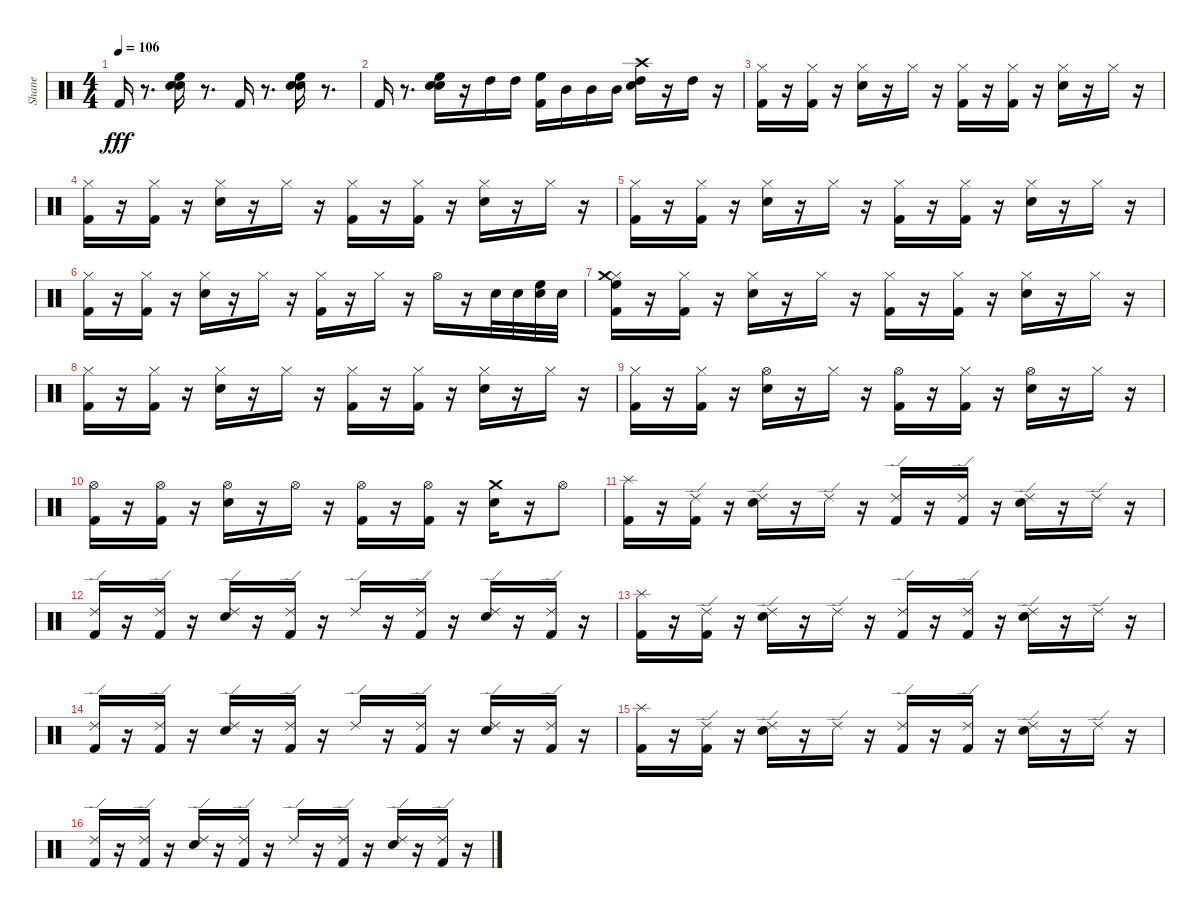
\track ("Shane" "Shane") {instrument percussion}
\staff {score}
\articulation defaults
\ts (4 4)
\tempo 106
\clef neutral
\ks c "Kick (hit) 2".16{dy fff}
r.8{d} ("Electric Snare (hit)" "Snare (hit) 2" "High Floor Tom (hit)").16 r.8{d} "Kick (hit) 2".16 r.8{d} ("Electric Snare (hit)" "Snare (hit) 2" "High Floor Tom (hit)").16 r.8{d} |
"Kick (hit) 2".16 r.8{d} ("Electric Snare (hit)" "Snare (hit) 2" "High Floor Tom (hit)").16 r.16 "High Tom (hit)".16 "High Tom (hit)".16 ("Kick (hit) 2" "High Floor Tom (hit)").16 "Mid Tom (hit)".16 "Mid Tom (hit)".16 "Mid Tom (hit)".16 ("High Tom (hit)" "Snare (hit) 2" "Crash high (hit)").16 r.16 "High Tom (hit)".16 r.16 |
("Hi-Hat (closed)" "Kick (hit) 2").16 r.16 ("Hi-Hat (closed)" "Kick (hit) 2").16 r.16 ("Hi-Hat (closed)" "Snare (hit) 2").16 r.16 "Hi-Hat (closed)".16 r.16 ("Hi-Hat (closed)" "Kick (hit) 2").16 r.16 ("Hi-Hat (closed)" "Kick (hit) 2").16 r.16 ("Hi-Hat (closed)" "Snare (hit) 2").16 r.16 "Hi-Hat (closed)".16 r.16 |
("Hi-Hat (closed)" "Kick (hit) 2").16 r.16 ("Hi-Hat (closed)" "Kick (hit) 2").16 r.16 ("Hi-Hat (closed)" "Snare (hit) 2").16 r.16 "Hi-Hat (closed)".16 r.16 ("Hi-Hat (closed)" "Kick (hit) 2").16 r.16 ("Hi-Hat (closed)" "Kick (hit) 2").16 r.16 ("Hi-Hat (closed)" "Snare (hit) 2").16 r.16 "Hi-Hat (closed)".16 r.16 |
("Hi-Hat (closed)" "Kick (hit) 2").16 r.16 ("Hi-Hat (closed)" "Kick (hit) 2").16 r.16 ("Hi-Hat (closed)" "Snare (hit) 2").16 r.16 "Hi-Hat (closed)".16 r.16 ("Hi-Hat (closed)" "Kick (hit) 2").16 r.16 ("Hi-Hat (closed)" "Kick (hit) 2").16 r.16 ("Hi-Hat (closed)" "Snare (hit) 2").16 r.16 "Hi-Hat (closed)".16 r.16 |
("Hi-Hat (closed)" "Kick (hit) 2").16 r.16 ("Hi-Hat (closed)" "Kick (hit) 2").16 r.16 ("Hi-Hat (closed)" "Snare (hit) 2").16 r.16 "Hi-Hat (closed)".16 r.16 ("Hi-Hat (closed)" "Kick (hit) 2").16 r.16 "Hi-Hat (closed)".16 r.16 "Hi-Hat (open)".16 r.16 "Electric Snare (hit)".32 "Electric Snare (hit)".32 ("Electric Snare (hit)" "High Floor Tom (hit)").32 "Electric Snare (hit)".32 |
("High Floor Tom (hit)" "Hi-Hat (closed)" "Kick (hit) 2" "Crash medium (hit)").16 r.16 ("Hi-Hat (closed)" "Kick (hit) 2").16 r.16 ("Hi-Hat (closed)" "Snare (hit) 2").16 r.16 "Hi-Hat (closed)".16 r.16 ("Hi-Hat (closed)" "Kick (hit) 2").16 r.16 ("Hi-Hat (closed)" "Kick (hit) 2").16 r.16 ("Hi-Hat (closed)" "Snare (hit) 2").16 r.16 "Hi-Hat (closed)".16 r.16 |
("Hi-Hat (closed)" "Kick (hit) 2").16 r.16 ("Hi-Hat (closed)" "Kick (hit) 2").16 r.16 ("Hi-Hat (closed)" "Snare (hit) 2").16 r.16 "Hi-Hat (closed)".16 r.16 ("Hi-Hat (closed)" "Kick (hit) 2").16 r.16 ("Hi-Hat (closed)" "Kick (hit) 2").16 r.16 ("Hi-Hat (closed)" "Snare (hit) 2").16 r.16 "Hi-Hat (closed)".16 r.16 |
("Hi-Hat (closed)" "Kick (hit) 2").16 r.16 ("Hi-Hat (closed)" "Kick (hit) 2").16 r.16 ("Snare (hit) 2" "Hi-Hat (open)").16 r.16 "Hi-Hat (closed)".16 r.16 ("Kick (hit) 2" "Hi-Hat (open)").16 r.16 ("Kick (hit) 2" "Hi-Hat (closed)").16 r.16 ("Snare (hit) 2" "Hi-Hat (open)").16 r.16 "Hi-Hat (closed)".16 r.16 |
("Kick (hit) 2" "Hi-Hat (open)").16 r.16 ("Kick (hit) 2" "Hi-Hat (open)").16 r.16 ("Snare (hit) 2" "Hi-Hat (open)").16 r.16 "Hi-Hat (open)".16 r.16 ("Kick (hit) 2" "Hi-Hat (open)").16 r.16 ("Kick (hit) 2" "Hi-Hat (open)").16 r.16 ("Snare (hit) 2" "Crash medium (hit)").16 r.16 "Hi-Hat (open)".8 |
("Splash (hit)" "Kick (hit) 2").16 r.16 ("Kick (hit) 2" "Ride (edge) 2").16 r.16 ("Snare (hit) 2" "Ride (edge) 2").16 r.16 "Ride (edge) 2".16 r.16 ("Kick (hit) 2" "Ride (edge) 2").16 r.16 ("Kick (hit) 2" "Ride (edge) 2").16 r.16 ("Snare (hit) 2" "Ride (edge) 2").16 r.16 "Ride (edge) 2".16 r.16 |
("Ride (edge) 2" "Kick (hit) 2").16 r.16 ("Kick (hit) 2" "Ride (edge) 2").16 r.16 ("Snare (hit) 2" "Ride (edge) 2").16 r.16 ("Kick (hit) 2" "Ride (edge) 2").16 r.16 "Ride (edge) 2".16 r.16 ("Kick (hit) 2" "Ride (edge) 2").16 r.16 ("Snare (hit) 2" "Ride (edge) 2").16 r.16 ("Kick (hit) 2" "Ride (edge) 2").16 r.16 |
("Splash (hit)" "Kick (hit) 2").16 r.16 ("Kick (hit) 2" "Ride (edge) 2").16 r.16 ("Snare (hit) 2" "Ride (edge) 2").16 r.16 "Ride (edge) 2".16 r.16 ("Kick (hit) 2" "Ride (edge) 2").16 r.16 ("Kick (hit) 2" "Ride (edge) 2").16 r.16 ("Snare (hit) 2" "Ride (edge) 2").16 r.16 "Ride (edge) 2".16 r.16 |
("Ride (edge) 2" "Kick (hit) 2").16 r.16 ("Kick (hit) 2" "Ride (edge) 2").16 r.16 ("Snare (hit) 2" "Ride (edge) 2").16 r.16 ("Kick (hit) 2" "Ride (edge) 2").16 r.16 "Ride (edge) 2".16 r.16 ("Kick (hit) 2" "Ride (edge) 2").16 r.16 ("Snare (hit) 2" "Ride (edge) 2").16 r.16 ("Kick (hit) 2" "Ride (edge) 2").16 r.16 |
("Splash (hit)" "Kick (hit) 2").16 r.16 ("Kick (hit) 2" "Ride (edge) 2").16 r.16 ("Snare (hit) 2" "Ride (edge) 2").16 r.16 "Ride (edge) 2".16 r.16 ("Kick (hit) 2" "Ride (edge) 2").16 r.16 ("Kick (hit) 2" "Ride (edge) 2").16 r.16 ("Snare (hit) 2" "Ride (edge) 2").16 r.16 "Ride (edge) 2".16 r.16 |
("Ride (edge) 2" "Kick (hit) 2").16 r.16 ("Kick (hit) 2" "Ride (edge) 2").16 r.16 ("Snare (hit) 2" "Ride (edge) 2").16 r.16 ("Kick (hit) 2" "Ride (edge) 2").16 r.16 "Ride (edge) 2".16 r.16 ("Kick (hit) 2" "Ride (edge) 2").16 r.16 ("Snare (hit) 2" "Ride (edge) 2").16 r.16 ("Kick (hit) 2" "Ride (edge) 2").16 r.16
